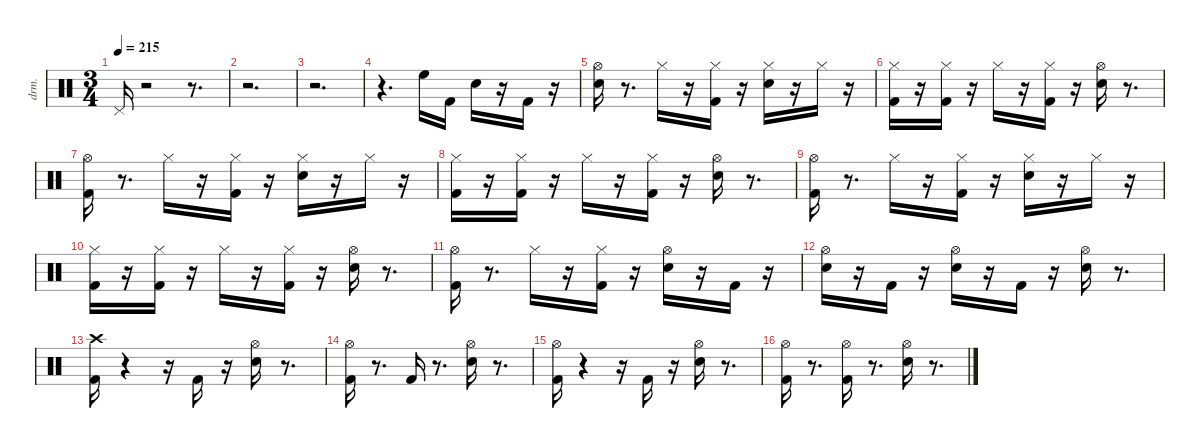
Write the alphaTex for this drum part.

\defaultSystemsLayout 4
\hideDynamics
\bracketExtendMode nobrackets
\otherSystemsTrackNameOrientation horizontal
\track ("drums(暫定)" "drm.") {instrument percussion}
\staff {score}
\articulation defaults
\ts (3 4)
\tempo 215
\clef neutral
\ks aminor "Pedal Hi-Hat (hit)"{acc #}.16{dy ff beam Up}
r.2{beam Up} r.8{d beam Up} |
r.2{d beam Down} |
r.2{d beam Down} |
r.4{d beam Down} "High Floor Tom (hit)".16{beam Down} "Kick (hit) 2".16{beam Down} "Snare (hit) 2".16{beam Down} r.16{beam Down} "Kick (hit) 2".16{beam Up} r.16{beam Up} |
("Snare (hit) 2" "Hi-Hat (open)"{acc #}).16{dy fff beam Down} r.8{d beam Down} "Hi-Hat (closed)"{acc #}.16{dy mf beam Down} r.16{beam Down} ("Kick (hit) 2" "Hi-Hat (closed)"{acc #}).16{dy ff beam Down} r.16{beam Down} ("Snare (hit) 2" "Hi-Hat (closed)"{acc #}).16{beam Down} r.16{beam Down} "Hi-Hat (closed)"{acc #}.16{dy pp beam Down} r.16{beam Down} |
("Kick (hit) 2" "Hi-Hat (closed)"{acc #}).16{dy mf beam Down} r.16{beam Down} ("Kick (hit) 2" "Hi-Hat (closed)"{acc #}).16{dy ff beam Down} r.16{beam Down} "Hi-Hat (closed)"{acc #}.16{dy mf beam Down} r.16{beam Down} ("Kick (hit) 2" "Hi-Hat (closed)"{acc #}).16{dy ff beam Down} r.16{beam Down} ("Snare (hit) 2" "Hi-Hat (open)"{acc #}).16{beam Down} r.8{d beam Down} |
("Kick (hit) 2" "Hi-Hat (open)"{acc #}).16{dy fff beam Down} r.8{d beam Down} "Hi-Hat (closed)"{acc #}.16{dy mf beam Down} r.16{beam Down} ("Kick (hit) 2" "Hi-Hat (closed)"{acc #}).16{dy ff beam Down} r.16{beam Down} ("Snare (hit) 2" "Hi-Hat (closed)"{acc #}).16{beam Down} r.16{beam Down} "Hi-Hat (closed)"{acc #}.16{dy pp beam Down} r.16{beam Down} |
("Kick (hit) 2" "Hi-Hat (closed)"{acc #}).16{dy mf beam Down} r.16{beam Down} ("Kick (hit) 2" "Hi-Hat (closed)"{acc #}).16{dy ff beam Down} r.16{beam Down} "Hi-Hat (closed)"{acc #}.16{dy mf beam Down} r.16{beam Down} ("Kick (hit) 2" "Hi-Hat (closed)"{acc #}).16{dy ff beam Down} r.16{beam Down} ("Snare (hit) 2" "Hi-Hat (open)"{acc #}).16{beam Down} r.8{d beam Down} |
("Kick (hit) 2" "Hi-Hat (open)"{acc #}).16{dy fff beam Down} r.8{d beam Down} "Hi-Hat (closed)"{acc #}.16{dy mf beam Down} r.16{beam Down} ("Kick (hit) 2" "Hi-Hat (closed)"{acc #}).16{dy ff beam Down} r.16{beam Down} ("Snare (hit) 2" "Hi-Hat (closed)"{acc #}).16{beam Down} r.16{beam Down} "Hi-Hat (closed)"{acc #}.16{dy pp beam Down} r.16{beam Down} |
("Kick (hit) 2" "Hi-Hat (closed)"{acc #}).16{dy mf beam Down} r.16{beam Down} ("Kick (hit) 2" "Hi-Hat (closed)"{acc #}).16{dy ff beam Down} r.16{beam Down} "Hi-Hat (closed)"{acc #}.16{dy mf beam Down} r.16{beam Down} ("Kick (hit) 2" "Hi-Hat (closed)"{acc #}).16{dy ff beam Down} r.16{beam Down} ("Snare (hit) 2" "Hi-Hat (open)"{acc #}).16{beam Down} r.8{d beam Down} |
("Kick (hit) 2" "Hi-Hat (open)"{acc #}).16{dy fff beam Down} r.8{d beam Down} "Hi-Hat (closed)"{acc #}.16{dy mf beam Down} r.16{beam Down} ("Kick (hit) 2" "Hi-Hat (closed)"{acc #}).16{dy ff beam Down} r.16{beam Down} ("Snare (hit) 2" "Hi-Hat (open)"{acc #}).16{beam Down} r.16{beam Down} "Kick (hit) 2".16{dy f beam Up} r.16{beam Up} |
("Snare (hit) 2" "Hi-Hat (open)"{acc #}).16{dy fff beam Down} r.16{beam Down} "Kick (hit) 2".16{dy ff beam Up} r.16{beam Up} ("Snare (hit) 2" "Hi-Hat (open)"{acc #}).16{dy f beam Down} r.16{beam Down} "Kick (hit) 2".16{beam Up} r.16{beam Up} ("Snare (hit) 2" "Hi-Hat (open)"{acc #}).16{dy fff beam Down} r.8{d beam Down} |
("Kick (hit) 2" "Crash high (hit)"{acc #}).16{beam Down} r.4{beam Down} r.16{beam Down} "Kick (hit) 2".16{dy ff beam Up} r.16{beam Up} ("Snare (hit) 2" "Hi-Hat (open)"{acc #}).16{beam Down} r.8{d beam Down} |
("Kick (hit) 2" "Hi-Hat (open)"{acc #}).16{beam Down} r.8{d beam Down} "Kick (hit) 2".16{beam Up} r.8{d beam Up} ("Snare (hit) 2" "Hi-Hat (open)"{acc #}).16{beam Down} r.8{d beam Down} |
("Kick (hit) 2" "Hi-Hat (open)"{acc #}).16{dy fff beam Down} r.4{beam Down} r.16{beam Down} "Kick (hit) 2".16{dy ff beam Up} r.16{beam Up} ("Snare (hit) 2" "Hi-Hat (open)"{acc #}).16{beam Down} r.8{d beam Down} |
("Kick (hit) 2" "Hi-Hat (open)"{acc #}).16{beam Down} r.8{d beam Down} ("Kick (hit) 2" "Hi-Hat (open)"{acc #}).16{beam Down} r.8{d beam Down} ("Snare (hit) 2" "Hi-Hat (open)"{acc #}).16{beam Down} r.8{d beam Down}
